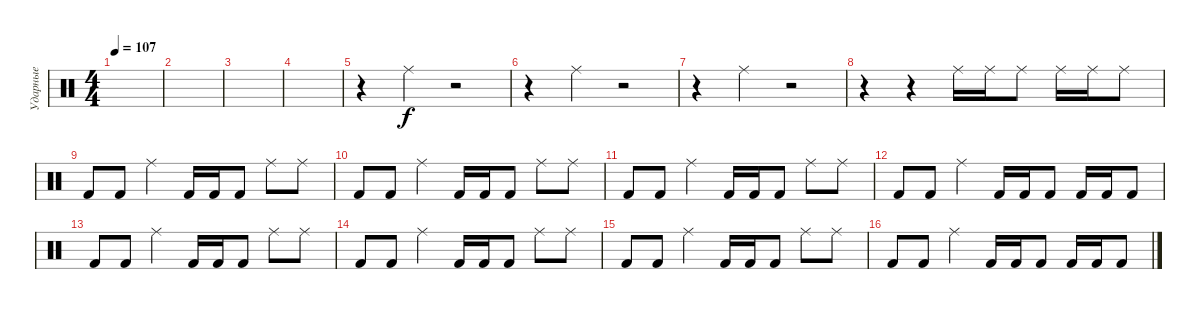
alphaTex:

\track ("Ударные" "Ударные") {instrument percussion}
\staff {score}
\articulation defaults
\ts (4 4)
\tempo 107
\clef neutral
\ks c
|
|
|
|
r.4 "Ride (middle)".4 r.2 |
r.4 "Ride (middle)".4 r.2 |
r.4 "Ride (middle)".4 r.2 |
r.4 r.4 "Ride (middle)".16 "Ride (middle)".16 "Ride (middle)".8 "Ride (middle)".16 "Ride (middle)".16 "Ride (middle)".8 |
"Kick (hit) 2".8 "Kick (hit) 2".8 "Ride (middle)".4 "Kick (hit) 2".16 "Kick (hit) 2".16 "Kick (hit) 2".8 "Ride (middle)".8 "Ride (middle)".8 |
"Kick (hit) 2".8 "Kick (hit) 2".8 "Ride (middle)".4 "Kick (hit) 2".16 "Kick (hit) 2".16 "Kick (hit) 2".8 "Ride (middle)".8 "Ride (middle)".8 |
"Kick (hit) 2".8 "Kick (hit) 2".8 "Ride (middle)".4 "Kick (hit) 2".16 "Kick (hit) 2".16 "Kick (hit) 2".8 "Ride (middle)".8 "Ride (middle)".8 |
"Kick (hit) 2".8 "Kick (hit) 2".8 "Ride (middle)".4 "Kick (hit) 2".16 "Kick (hit) 2".16 "Kick (hit) 2".8 "Kick (hit) 2".16 "Kick (hit) 2".16 "Kick (hit) 2".8 |
"Kick (hit) 2".8 "Kick (hit) 2".8 "Ride (middle)".4 "Kick (hit) 2".16 "Kick (hit) 2".16 "Kick (hit) 2".8 "Ride (middle)".8 "Ride (middle)".8 |
"Kick (hit) 2".8 "Kick (hit) 2".8 "Ride (middle)".4 "Kick (hit) 2".16 "Kick (hit) 2".16 "Kick (hit) 2".8 "Ride (middle)".8 "Ride (middle)".8 |
"Kick (hit) 2".8 "Kick (hit) 2".8 "Ride (middle)".4 "Kick (hit) 2".16 "Kick (hit) 2".16 "Kick (hit) 2".8 "Ride (middle)".8 "Ride (middle)".8 |
"Kick (hit) 2".8 "Kick (hit) 2".8 "Ride (middle)".4 "Kick (hit) 2".16 "Kick (hit) 2".16 "Kick (hit) 2".8 "Kick (hit) 2".16 "Kick (hit) 2".16 "Kick (hit) 2".8
